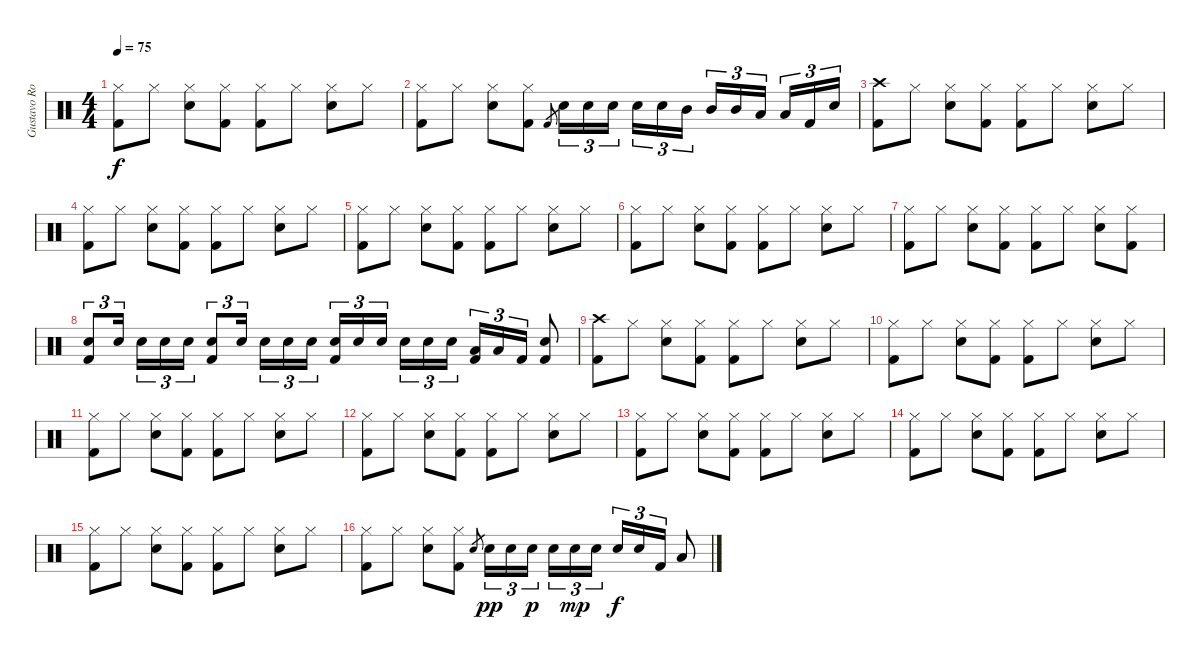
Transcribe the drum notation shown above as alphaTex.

\track ("Gustavo Rowek" "Gustavo Ro") {instrument percussion}
\staff {score}
\articulation defaults
\ts (4 4)
\tempo 75
\clef neutral
\ks c
("Kick (hit) 2" "Hi-Hat (closed)").8{dy f} "Hi-Hat (closed)".8 ("Snare (hit) 2" "Hi-Hat (closed)").8 ("Kick (hit) 2" "Hi-Hat (closed)").8 ("Kick (hit) 2" "Hi-Hat (closed)").8 "Hi-Hat (closed)".8 ("Snare (hit) 2" "Hi-Hat (closed)").8 "Hi-Hat (closed)".8 |
("Kick (hit) 2" "Hi-Hat (closed)").8 "Hi-Hat (closed)".8 ("Snare (hit) 2" "Hi-Hat (closed)").8 ("Kick (hit) 2" "Hi-Hat (closed)").8 "Kick (hit) 2".8{gr} "Snare (hit) 2".16{tu (3 2)} "Snare (hit) 2".16{tu (3 2)} "Snare (hit) 2".16{tu (3 2)} "Snare (hit) 2".16{tu (3 2)} "Snare (hit) 2".16{tu (3 2)} "Mid Tom (hit)".16{tu (3 2)} "Mid Tom (hit)".16{tu (3 2)} "Mid Tom (hit)".16{tu (3 2)} "Low Tom (hit)".16{tu (3 2)} "Low Tom (hit)".16{tu (3 2)} "Kick (hit) 2".16{tu (3 2)} "Snare (hit) 2".16{tu (3 2)} |
("Kick (hit) 2" "Crash high (hit)").8 "Hi-Hat (closed)".8 ("Snare (hit) 2" "Hi-Hat (closed)").8 ("Kick (hit) 2" "Hi-Hat (closed)").8 ("Kick (hit) 2" "Hi-Hat (closed)").8 "Hi-Hat (closed)".8 ("Snare (hit) 2" "Hi-Hat (closed)").8 "Hi-Hat (closed)".8 |
("Kick (hit) 2" "Hi-Hat (closed)").8 "Hi-Hat (closed)".8 ("Snare (hit) 2" "Hi-Hat (closed)").8 ("Kick (hit) 2" "Hi-Hat (closed)").8 ("Kick (hit) 2" "Hi-Hat (closed)").8 "Hi-Hat (closed)".8 ("Snare (hit) 2" "Hi-Hat (closed)").8 "Hi-Hat (closed)".8 |
("Kick (hit) 2" "Hi-Hat (closed)").8 "Hi-Hat (closed)".8 ("Snare (hit) 2" "Hi-Hat (closed)").8 ("Kick (hit) 2" "Hi-Hat (closed)").8 ("Kick (hit) 2" "Hi-Hat (closed)").8 "Hi-Hat (closed)".8 ("Snare (hit) 2" "Hi-Hat (closed)").8 "Hi-Hat (closed)".8 |
("Kick (hit) 2" "Hi-Hat (closed)").8 "Hi-Hat (closed)".8 ("Snare (hit) 2" "Hi-Hat (closed)").8 ("Kick (hit) 2" "Hi-Hat (closed)").8 ("Kick (hit) 2" "Hi-Hat (closed)").8 "Hi-Hat (closed)".8 ("Snare (hit) 2" "Hi-Hat (closed)").8 "Hi-Hat (closed)".8 |
("Kick (hit) 2" "Hi-Hat (closed)").8 "Hi-Hat (closed)".8 ("Snare (hit) 2" "Hi-Hat (closed)").8 ("Kick (hit) 2" "Hi-Hat (closed)").8 ("Kick (hit) 2" "Hi-Hat (closed)").8 "Hi-Hat (closed)".8 ("Snare (hit) 2" "Hi-Hat (closed)").8 ("Kick (hit) 2" "Hi-Hat (closed)").8 |
("Snare (hit) 2" "Kick (hit) 2").8{tu (3 2)} "Snare (hit) 2".16{tu (3 2)} "Snare (hit) 2".16{tu (3 2)} "Snare (hit) 2".16{tu (3 2)} "Snare (hit) 2".16{tu (3 2)} ("Snare (hit) 2" "Kick (hit) 2").8{tu (3 2)} "Snare (hit) 2".16{tu (3 2)} "Snare (hit) 2".16{tu (3 2)} "Snare (hit) 2".16{tu (3 2)} "Snare (hit) 2".16{tu (3 2)} ("Snare (hit) 2" "Kick (hit) 2").16{tu (3 2)} "Snare (hit) 2".16{tu (3 2)} "Snare (hit) 2".16{tu (3 2)} "Snare (hit) 2".16{tu (3 2)} "Snare (hit) 2".16{tu (3 2)} "Snare (hit) 2".16{tu (3 2)} ("Low Tom (hit)" "Kick (hit) 2").16{tu (3 2)} "Low Tom (hit)".16{tu (3 2)} "Kick (hit) 2".16{tu (3 2)} ("Snare (hit) 2" "Kick (hit) 2").8 |
("Kick (hit) 2" "Crash high (hit)").8 "Hi-Hat (closed)".8 ("Snare (hit) 2" "Hi-Hat (closed)").8 ("Kick (hit) 2" "Hi-Hat (closed)").8 ("Kick (hit) 2" "Hi-Hat (closed)").8 "Hi-Hat (closed)".8 ("Snare (hit) 2" "Hi-Hat (closed)").8 "Hi-Hat (closed)".8 |
("Kick (hit) 2" "Hi-Hat (closed)").8 "Hi-Hat (closed)".8 ("Snare (hit) 2" "Hi-Hat (closed)").8 ("Kick (hit) 2" "Hi-Hat (closed)").8 ("Kick (hit) 2" "Hi-Hat (closed)").8 "Hi-Hat (closed)".8 ("Snare (hit) 2" "Hi-Hat (closed)").8 "Hi-Hat (closed)".8 |
("Kick (hit) 2" "Hi-Hat (closed)").8 "Hi-Hat (closed)".8 ("Snare (hit) 2" "Hi-Hat (closed)").8 ("Kick (hit) 2" "Hi-Hat (closed)").8 ("Kick (hit) 2" "Hi-Hat (closed)").8 "Hi-Hat (closed)".8 ("Snare (hit) 2" "Hi-Hat (closed)").8 "Hi-Hat (closed)".8 |
("Kick (hit) 2" "Hi-Hat (closed)").8 "Hi-Hat (closed)".8 ("Snare (hit) 2" "Hi-Hat (closed)").8 ("Kick (hit) 2" "Hi-Hat (closed)").8 ("Kick (hit) 2" "Hi-Hat (closed)").8 "Hi-Hat (closed)".8 ("Snare (hit) 2" "Hi-Hat (closed)").8 "Hi-Hat (closed)".8 |
("Kick (hit) 2" "Hi-Hat (closed)").8 "Hi-Hat (closed)".8 ("Snare (hit) 2" "Hi-Hat (closed)").8 ("Kick (hit) 2" "Hi-Hat (closed)").8 ("Kick (hit) 2" "Hi-Hat (closed)").8 "Hi-Hat (closed)".8 ("Snare (hit) 2" "Hi-Hat (closed)").8 "Hi-Hat (closed)".8 |
("Kick (hit) 2" "Hi-Hat (closed)").8 "Hi-Hat (closed)".8 ("Snare (hit) 2" "Hi-Hat (closed)").8 ("Kick (hit) 2" "Hi-Hat (closed)").8 ("Kick (hit) 2" "Hi-Hat (closed)").8 "Hi-Hat (closed)".8 ("Snare (hit) 2" "Hi-Hat (closed)").8 "Hi-Hat (closed)".8 |
("Kick (hit) 2" "Hi-Hat (closed)").8 "Hi-Hat (closed)".8 ("Snare (hit) 2" "Hi-Hat (closed)").8 ("Kick (hit) 2" "Hi-Hat (closed)").8 ("Kick (hit) 2" "Hi-Hat (closed)").8 "Hi-Hat (closed)".8 ("Snare (hit) 2" "Hi-Hat (closed)").8 "Hi-Hat (closed)".8 |
("Kick (hit) 2" "Hi-Hat (closed)").8 "Hi-Hat (closed)".8 ("Snare (hit) 2" "Hi-Hat (closed)").8 ("Kick (hit) 2" "Hi-Hat (closed)").8 "Snare (hit) 2".8{gr} "Snare (hit) 2".16{tu (3 2) dy pp} "Snare (hit) 2".16{tu (3 2)} "Snare (hit) 2".16{tu (3 2) dy p} "Snare (hit) 2".16{tu (3 2)} "Snare (hit) 2".16{tu (3 2) dy mp} "Snare (hit) 2".16{tu (3 2)} "Snare (hit) 2".16{tu (3 2) dy f} "Snare (hit) 2".16{tu (3 2)} "Kick (hit) 2".16{tu (3 2)} "Low Tom (hit)".8
